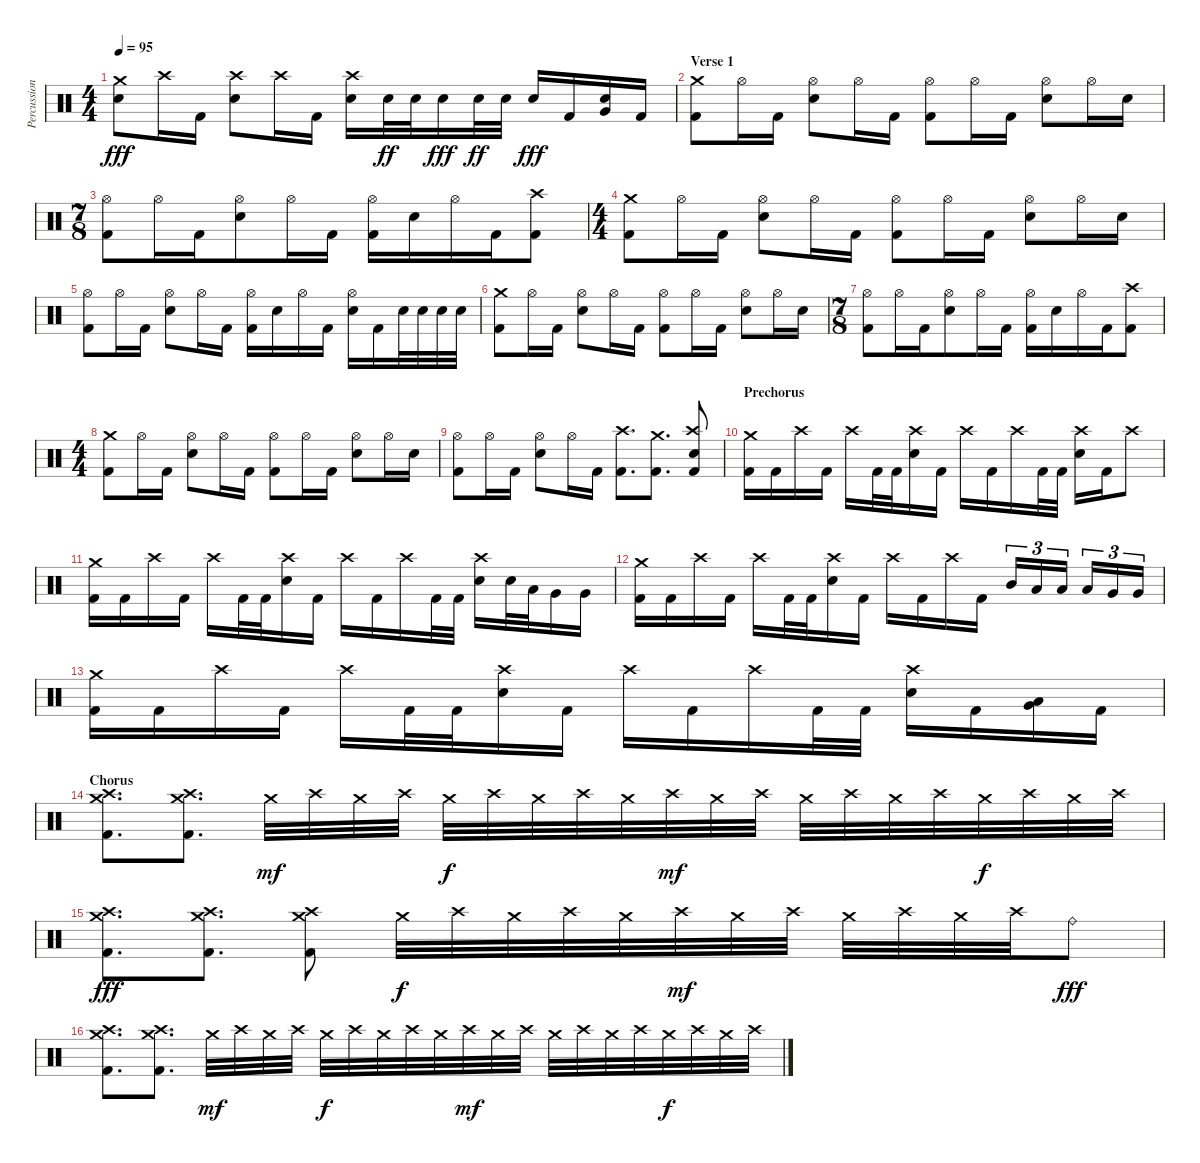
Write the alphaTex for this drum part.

\track ("Percussion" "Percussion") {instrument percussion}
\staff {score}
\articulation defaults
\ts (4 4)
\tempo 95
\clef neutral
\ks c
("Crash medium (hit)" "Snare (hit) 2").8{dy fff} "Crash high (hit)".16 "Kick (hit) 2".16 ("Crash high (hit)" "Snare (hit) 2").8 "Crash high (hit)".16 "Kick (hit) 2".16 ("Crash high (hit)" "Snare (hit) 2").16 "Snare (hit) 2".32{dy ff} "Snare (hit) 2".32 "Snare (hit) 2".16{dy fff} "Snare (hit) 2".32{dy ff} "Snare (hit) 2".32 "Snare (hit) 2".16{dy fff} "Kick (hit) 2".16 ("Very Low Tom (hit)" "Snare (hit) 2").16 "Kick (hit) 2".16 |
\section ("" "Verse 1")
("Crash medium (hit)" "Kick (hit) 2").8 "Hi-Hat (open)".16 "Kick (hit) 2".16 ("Hi-Hat (open)" "Snare (hit) 2").8 "Hi-Hat (open)".16 "Kick (hit) 2".16 ("Hi-Hat (open)" "Kick (hit) 2").8 "Hi-Hat (open)".16 "Kick (hit) 2".16 ("Hi-Hat (open)" "Snare (hit) 2").8 "Hi-Hat (open)".16 "Snare (hit) 2".16 |
\ts (7 8)
("Hi-Hat (open)" "Kick (hit) 2").8 "Hi-Hat (open)".16 "Kick (hit) 2".16 ("Hi-Hat (open)" "Snare (hit) 2").8 "Hi-Hat (open)".16 "Kick (hit) 2".16 ("Hi-Hat (open)" "Kick (hit) 2").16 "Snare (hit) 2".16 "Hi-Hat (open)".16 "Kick (hit) 2".16 ("Crash high (hit)" "Kick (hit) 2").8 |
\ts (4 4)
("Crash medium (hit)" "Kick (hit) 2").8 "Hi-Hat (open)".16 "Kick (hit) 2".16 ("Hi-Hat (open)" "Snare (hit) 2").8 "Hi-Hat (open)".16 "Kick (hit) 2".16 ("Hi-Hat (open)" "Kick (hit) 2").8 "Hi-Hat (open)".16 "Kick (hit) 2".16 ("Hi-Hat (open)" "Snare (hit) 2").8 "Hi-Hat (open)".16 "Snare (hit) 2".16 |
("Hi-Hat (open)" "Kick (hit) 2").8 "Hi-Hat (open)".16 "Kick (hit) 2".16 ("Hi-Hat (open)" "Snare (hit) 2").8 "Hi-Hat (open)".16 "Kick (hit) 2".16 ("Hi-Hat (open)" "Kick (hit) 2").16 "Snare (hit) 2".16 "Hi-Hat (open)".16 "Kick (hit) 2".16 ("Hi-Hat (open)" "Snare (hit) 2").16 "Kick (hit) 2".16 "Snare (hit) 2".32 "Snare (hit) 2".32 "Snare (hit) 2".32 "Snare (hit) 2".32 |
("Crash medium (hit)" "Kick (hit) 2").8 "Hi-Hat (open)".16 "Kick (hit) 2".16 ("Hi-Hat (open)" "Snare (hit) 2").8 "Hi-Hat (open)".16 "Kick (hit) 2".16 ("Hi-Hat (open)" "Kick (hit) 2").8 "Hi-Hat (open)".16 "Kick (hit) 2".16 ("Hi-Hat (open)" "Snare (hit) 2").8 "Hi-Hat (open)".16 "Snare (hit) 2".16 |
\ts (7 8)
("Hi-Hat (open)" "Kick (hit) 2").8 "Hi-Hat (open)".16 "Kick (hit) 2".16 ("Hi-Hat (open)" "Snare (hit) 2").8 "Hi-Hat (open)".16 "Kick (hit) 2".16 ("Hi-Hat (open)" "Kick (hit) 2").16 "Snare (hit) 2".16 "Hi-Hat (open)".16 "Kick (hit) 2".16 ("Crash high (hit)" "Kick (hit) 2").8 |
\ts (4 4)
("Crash medium (hit)" "Kick (hit) 2").8 "Hi-Hat (open)".16 "Kick (hit) 2".16 ("Hi-Hat (open)" "Snare (hit) 2").8 "Hi-Hat (open)".16 "Kick (hit) 2".16 ("Hi-Hat (open)" "Kick (hit) 2").8 "Hi-Hat (open)".16 "Kick (hit) 2".16 ("Hi-Hat (open)" "Snare (hit) 2").8 "Hi-Hat (open)".16 "Snare (hit) 2".16 |
("Hi-Hat (open)" "Kick (hit) 2").8 "Hi-Hat (open)".16 "Kick (hit) 2".16 ("Hi-Hat (open)" "Snare (hit) 2").8 "Hi-Hat (open)".16 "Kick (hit) 2".16 ("Crash high (hit)" "Kick (hit) 2").8{d} ("Crash medium (hit)" "Kick (hit) 2").8{d} ("Crash high (hit)" "Snare (hit) 2" "Kick (hit) 2").8 |
\section ("" "Prechorus")
("Crash medium (hit)" "Kick (hit) 2").16 "Kick (hit) 2".16 "Crash high (hit)".16 "Kick (hit) 2".16 "Crash high (hit)".16 "Kick (hit) 2".32 "Kick (hit) 2".32 ("Crash high (hit)" "Snare (hit) 2").16 "Kick (hit) 2".16 "Crash high (hit)".16 "Kick (hit) 2".16 "Crash high (hit)".16 "Kick (hit) 2".32 "Kick (hit) 2".32 ("Crash high (hit)" "Snare (hit) 2").16 "Kick (hit) 2".16 "Crash high (hit)".8 |
("Crash medium (hit)" "Kick (hit) 2").16 "Kick (hit) 2".16 "Crash high (hit)".16 "Kick (hit) 2".16 "Crash high (hit)".16 "Kick (hit) 2".32 "Kick (hit) 2".32 ("Crash high (hit)" "Snare (hit) 2").16 "Kick (hit) 2".16 "Crash high (hit)".16 "Kick (hit) 2".16 "Crash high (hit)".16 "Kick (hit) 2".32 "Kick (hit) 2".32 ("Crash high (hit)" "Snare (hit) 2").16 "Snare (hit) 2".32 "Low Tom (hit)".32 "Very Low Tom (hit)".16 "Very Low Tom (hit)".16 |
("Crash medium (hit)" "Kick (hit) 2").16 "Kick (hit) 2".16 "Crash high (hit)".16 "Kick (hit) 2".16 "Crash high (hit)".16 "Kick (hit) 2".32 "Kick (hit) 2".32 ("Crash high (hit)" "Snare (hit) 2").16 "Kick (hit) 2".16 "Crash high (hit)".16 "Kick (hit) 2".16 "Crash high (hit)".16 "Kick (hit) 2".16 "Mid Tom (hit)".16{tu (3 2)} "Low Tom (hit)".16{tu (3 2)} "Low Tom (hit)".16{tu (3 2) beam splitsecondary} "Low Tom (hit)".16{tu (3 2)} "Very Low Tom (hit)".16{tu (3 2)} "Very Low Tom (hit)".16{tu (3 2)} |
("Crash medium (hit)" "Kick (hit) 2").16 "Kick (hit) 2".16 "Crash high (hit)".16 "Kick (hit) 2".16 "Crash high (hit)".16 "Kick (hit) 2".32 "Kick (hit) 2".32 ("Crash high (hit)" "Snare (hit) 2").16 "Kick (hit) 2".16 "Crash high (hit)".16 "Kick (hit) 2".16 "Crash high (hit)".16 "Kick (hit) 2".32 "Kick (hit) 2".32 ("Crash high (hit)" "Snare (hit) 2").16 "Kick (hit) 2".16 ("Low Tom (hit)" "Very Low Tom (hit)").16 "Kick (hit) 2".16 |
\section ("" "Chorus")
("Crash medium (hit)" "Crash high (hit)" "Kick (hit) 2").8{d} ("Crash medium (hit)" "Crash high (hit)" "Kick (hit) 2").8{d} "Crash medium (hit)".32{dy mf} "Crash high (hit)".32 "Crash medium (hit)".32 "Crash high (hit)".32 "Crash medium (hit)".32{dy f} "Crash high (hit)".32 "Crash medium (hit)".32 "Crash high (hit)".32 "Crash medium (hit)".32 "Crash high (hit)".32{dy mf} "Crash medium (hit)".32 "Crash high (hit)".32 "Crash medium (hit)".32 "Crash high (hit)".32 "Crash medium (hit)".32 "Crash high (hit)".32 "Crash medium (hit)".32{dy f} "Crash high (hit)".32 "Crash medium (hit)".32 "Crash high (hit)".32 |
("Crash medium (hit)" "Crash high (hit)" "Kick (hit) 2").8{d dy fff} ("Crash medium (hit)" "Crash high (hit)" "Kick (hit) 2").8{d} ("Crash medium (hit)" "Crash high (hit)" "Kick (hit) 2").8 "Crash medium (hit)".32{dy f} "Crash high (hit)".32 "Crash medium (hit)".32 "Crash high (hit)".32 "Crash medium (hit)".32 "Crash high (hit)".32{dy mf} "Crash medium (hit)".32 "Crash high (hit)".32 "Crash medium (hit)".32 "Crash high (hit)".32 "Crash medium (hit)".32 "Crash high (hit)".32 "Ride (bell)".8{dy fff} |
("Crash medium (hit)" "Crash high (hit)" "Kick (hit) 2").8{d} ("Crash medium (hit)" "Crash high (hit)" "Kick (hit) 2").8{d} "Crash medium (hit)".32{dy mf} "Crash high (hit)".32 "Crash medium (hit)".32 "Crash high (hit)".32 "Crash medium (hit)".32{dy f} "Crash high (hit)".32 "Crash medium (hit)".32 "Crash high (hit)".32 "Crash medium (hit)".32 "Crash high (hit)".32{dy mf} "Crash medium (hit)".32 "Crash high (hit)".32 "Crash medium (hit)".32 "Crash high (hit)".32 "Crash medium (hit)".32 "Crash high (hit)".32 "Crash medium (hit)".32{dy f} "Crash high (hit)".32 "Crash medium (hit)".32 "Crash high (hit)".32
